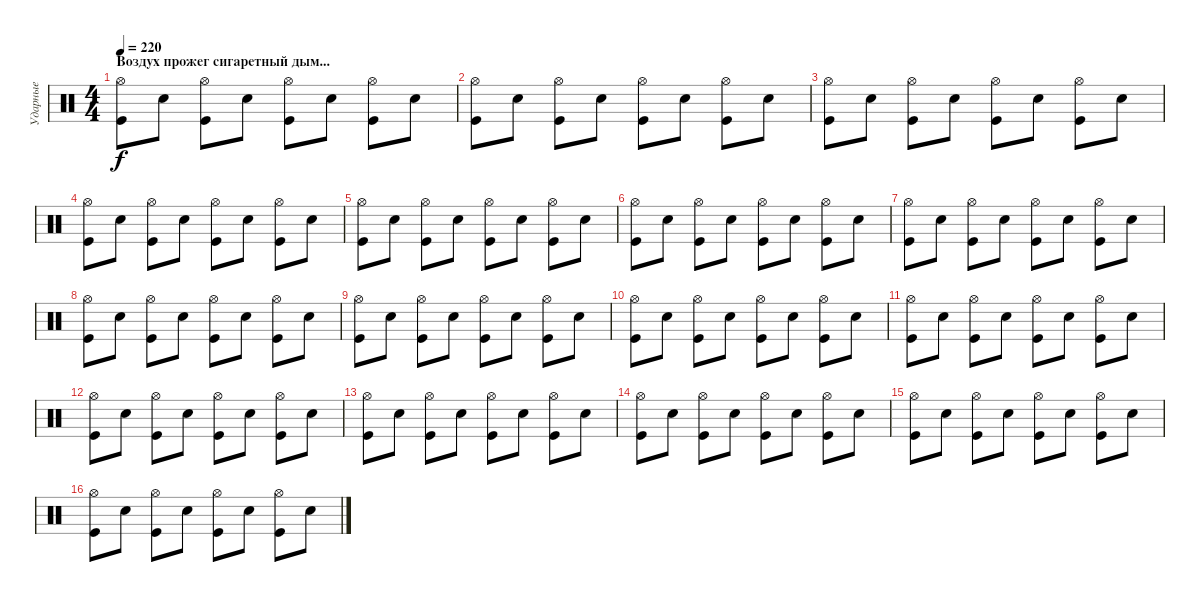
\track ("Ударные" "Ударные") {instrument percussion}
\staff {score}
\articulation defaults
\ts (4 4)
\section ("" "Воздух прожег сигаретный дым...")
\tempo 220
\clef neutral
\ks c
("Hi-Hat (open)" "Kick (hit)").8{dy f} "Electric Snare (hit)".8 ("Hi-Hat (open)" "Kick (hit)").8 "Electric Snare (hit)".8 ("Hi-Hat (open)" "Kick (hit)").8 "Electric Snare (hit)".8 ("Hi-Hat (open)" "Kick (hit)").8 "Electric Snare (hit)".8 |
("Hi-Hat (open)" "Kick (hit)").8 "Electric Snare (hit)".8 ("Hi-Hat (open)" "Kick (hit)").8 "Electric Snare (hit)".8 ("Hi-Hat (open)" "Kick (hit)").8 "Electric Snare (hit)".8 ("Hi-Hat (open)" "Kick (hit)").8 "Electric Snare (hit)".8 |
("Hi-Hat (open)" "Kick (hit)").8 "Electric Snare (hit)".8 ("Hi-Hat (open)" "Kick (hit)").8 "Electric Snare (hit)".8 ("Hi-Hat (open)" "Kick (hit)").8 "Electric Snare (hit)".8 ("Hi-Hat (open)" "Kick (hit)").8 "Electric Snare (hit)".8 |
("Hi-Hat (open)" "Kick (hit)").8 "Electric Snare (hit)".8 ("Hi-Hat (open)" "Kick (hit)").8 "Electric Snare (hit)".8 ("Hi-Hat (open)" "Kick (hit)").8 "Electric Snare (hit)".8 ("Hi-Hat (open)" "Kick (hit)").8 "Electric Snare (hit)".8 |
("Hi-Hat (open)" "Kick (hit)").8 "Electric Snare (hit)".8 ("Hi-Hat (open)" "Kick (hit)").8 "Electric Snare (hit)".8 ("Hi-Hat (open)" "Kick (hit)").8 "Electric Snare (hit)".8 ("Hi-Hat (open)" "Kick (hit)").8 "Electric Snare (hit)".8 |
("Hi-Hat (open)" "Kick (hit)").8 "Electric Snare (hit)".8 ("Hi-Hat (open)" "Kick (hit)").8 "Electric Snare (hit)".8 ("Hi-Hat (open)" "Kick (hit)").8 "Electric Snare (hit)".8 ("Hi-Hat (open)" "Kick (hit)").8 "Electric Snare (hit)".8 |
("Hi-Hat (open)" "Kick (hit)").8 "Electric Snare (hit)".8 ("Hi-Hat (open)" "Kick (hit)").8 "Electric Snare (hit)".8 ("Hi-Hat (open)" "Kick (hit)").8 "Electric Snare (hit)".8 ("Hi-Hat (open)" "Kick (hit)").8 "Electric Snare (hit)".8 |
("Hi-Hat (open)" "Kick (hit)").8 "Electric Snare (hit)".8 ("Hi-Hat (open)" "Kick (hit)").8 "Electric Snare (hit)".8 ("Hi-Hat (open)" "Kick (hit)").8 "Electric Snare (hit)".8 ("Hi-Hat (open)" "Kick (hit)").8 "Electric Snare (hit)".8 |
("Hi-Hat (open)" "Kick (hit)").8 "Electric Snare (hit)".8 ("Hi-Hat (open)" "Kick (hit)").8 "Electric Snare (hit)".8 ("Hi-Hat (open)" "Kick (hit)").8 "Electric Snare (hit)".8 ("Hi-Hat (open)" "Kick (hit)").8 "Electric Snare (hit)".8 |
("Hi-Hat (open)" "Kick (hit)").8 "Electric Snare (hit)".8 ("Hi-Hat (open)" "Kick (hit)").8 "Electric Snare (hit)".8 ("Hi-Hat (open)" "Kick (hit)").8 "Electric Snare (hit)".8 ("Hi-Hat (open)" "Kick (hit)").8 "Electric Snare (hit)".8 |
("Hi-Hat (open)" "Kick (hit)").8 "Electric Snare (hit)".8 ("Hi-Hat (open)" "Kick (hit)").8 "Electric Snare (hit)".8 ("Hi-Hat (open)" "Kick (hit)").8 "Electric Snare (hit)".8 ("Hi-Hat (open)" "Kick (hit)").8 "Electric Snare (hit)".8 |
("Hi-Hat (open)" "Kick (hit)").8 "Electric Snare (hit)".8 ("Hi-Hat (open)" "Kick (hit)").8 "Electric Snare (hit)".8 ("Hi-Hat (open)" "Kick (hit)").8 "Electric Snare (hit)".8 ("Hi-Hat (open)" "Kick (hit)").8 "Electric Snare (hit)".8 |
("Hi-Hat (open)" "Kick (hit)").8 "Electric Snare (hit)".8 ("Hi-Hat (open)" "Kick (hit)").8 "Electric Snare (hit)".8 ("Hi-Hat (open)" "Kick (hit)").8 "Electric Snare (hit)".8 ("Hi-Hat (open)" "Kick (hit)").8 "Electric Snare (hit)".8 |
("Hi-Hat (open)" "Kick (hit)").8 "Electric Snare (hit)".8 ("Hi-Hat (open)" "Kick (hit)").8 "Electric Snare (hit)".8 ("Hi-Hat (open)" "Kick (hit)").8 "Electric Snare (hit)".8 ("Hi-Hat (open)" "Kick (hit)").8 "Electric Snare (hit)".8 |
("Hi-Hat (open)" "Kick (hit)").8 "Electric Snare (hit)".8 ("Hi-Hat (open)" "Kick (hit)").8 "Electric Snare (hit)".8 ("Hi-Hat (open)" "Kick (hit)").8 "Electric Snare (hit)".8 ("Hi-Hat (open)" "Kick (hit)").8 "Electric Snare (hit)".8 |
("Hi-Hat (open)" "Kick (hit)").8 "Electric Snare (hit)".8 ("Hi-Hat (open)" "Kick (hit)").8 "Electric Snare (hit)".8 ("Hi-Hat (open)" "Kick (hit)").8 "Electric Snare (hit)".8 ("Hi-Hat (open)" "Kick (hit)").8 "Electric Snare (hit)".8
